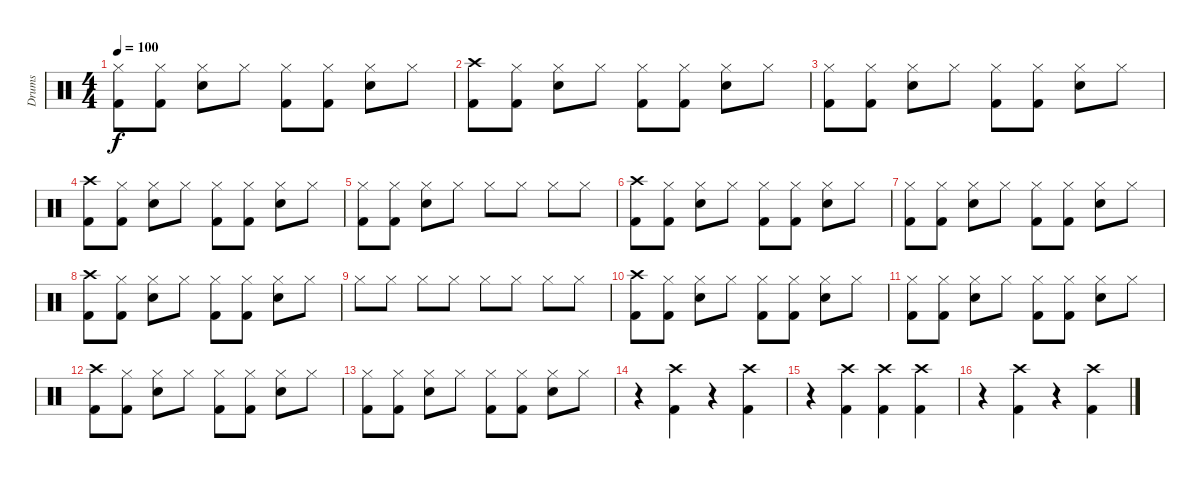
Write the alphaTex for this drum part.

\track ("Drums" "Drums") {instrument percussion}
\staff {score}
\articulation defaults
\ts (4 4)
\tempo 100
\clef neutral
\ks c
("Hi-Hat (closed)" "Kick (hit) 2").8{dy f} ("Hi-Hat (closed)" "Kick (hit) 2").8 ("Hi-Hat (closed)" "Electric Snare (hit)").8 "Hi-Hat (closed)".8 ("Hi-Hat (closed)" "Kick (hit) 2").8 ("Hi-Hat (closed)" "Kick (hit) 2").8 ("Hi-Hat (closed)" "Electric Snare (hit)").8 "Hi-Hat (closed)".8 |
("Crash high (hit)" "Kick (hit) 2").8 ("Hi-Hat (closed)" "Kick (hit) 2").8 ("Hi-Hat (closed)" "Electric Snare (hit)").8 "Hi-Hat (closed)".8 ("Hi-Hat (closed)" "Kick (hit) 2").8 ("Hi-Hat (closed)" "Kick (hit) 2").8 ("Hi-Hat (closed)" "Electric Snare (hit)").8 "Hi-Hat (closed)".8 |
("Hi-Hat (closed)" "Kick (hit) 2").8 ("Hi-Hat (closed)" "Kick (hit) 2").8 ("Hi-Hat (closed)" "Electric Snare (hit)").8 "Hi-Hat (closed)".8 ("Hi-Hat (closed)" "Kick (hit) 2").8 ("Hi-Hat (closed)" "Kick (hit) 2").8 ("Hi-Hat (closed)" "Electric Snare (hit)").8 "Hi-Hat (closed)".8 |
("Crash high (hit)" "Kick (hit) 2").8 ("Hi-Hat (closed)" "Kick (hit) 2").8 ("Hi-Hat (closed)" "Electric Snare (hit)").8 "Hi-Hat (closed)".8 ("Hi-Hat (closed)" "Kick (hit) 2").8 ("Hi-Hat (closed)" "Kick (hit) 2").8 ("Hi-Hat (closed)" "Electric Snare (hit)").8 "Hi-Hat (closed)".8 |
("Hi-Hat (closed)" "Kick (hit) 2").8 ("Hi-Hat (closed)" "Kick (hit) 2").8 ("Hi-Hat (closed)" "Electric Snare (hit)").8 "Hi-Hat (closed)".8 "Hi-Hat (closed)".8 "Hi-Hat (closed)".8 "Hi-Hat (closed)".8 "Hi-Hat (closed)".8 |
("Crash high (hit)" "Kick (hit) 2").8 ("Hi-Hat (closed)" "Kick (hit) 2").8 ("Hi-Hat (closed)" "Electric Snare (hit)").8 "Hi-Hat (closed)".8 ("Hi-Hat (closed)" "Kick (hit) 2").8 ("Hi-Hat (closed)" "Kick (hit) 2").8 ("Hi-Hat (closed)" "Electric Snare (hit)").8 "Hi-Hat (closed)".8 |
("Hi-Hat (closed)" "Kick (hit) 2").8 ("Hi-Hat (closed)" "Kick (hit) 2").8 ("Hi-Hat (closed)" "Electric Snare (hit)").8 "Hi-Hat (closed)".8 ("Hi-Hat (closed)" "Kick (hit) 2").8 ("Hi-Hat (closed)" "Kick (hit) 2").8 ("Hi-Hat (closed)" "Electric Snare (hit)").8 "Hi-Hat (closed)".8 |
("Crash high (hit)" "Kick (hit) 2").8 ("Hi-Hat (closed)" "Kick (hit) 2").8 ("Hi-Hat (closed)" "Electric Snare (hit)").8 "Hi-Hat (closed)".8 ("Hi-Hat (closed)" "Kick (hit) 2").8 ("Hi-Hat (closed)" "Kick (hit) 2").8 ("Hi-Hat (closed)" "Electric Snare (hit)").8 "Hi-Hat (closed)".8 |
"Hi-Hat (closed)".8 "Hi-Hat (closed)".8 "Hi-Hat (closed)".8 "Hi-Hat (closed)".8 "Hi-Hat (closed)".8 "Hi-Hat (closed)".8 "Hi-Hat (closed)".8 "Hi-Hat (closed)".8 |
("Crash high (hit)" "Kick (hit) 2").8 ("Hi-Hat (closed)" "Kick (hit) 2").8 ("Hi-Hat (closed)" "Electric Snare (hit)").8 "Hi-Hat (closed)".8 ("Hi-Hat (closed)" "Kick (hit) 2").8 ("Hi-Hat (closed)" "Kick (hit) 2").8 ("Hi-Hat (closed)" "Electric Snare (hit)").8 "Hi-Hat (closed)".8 |
("Hi-Hat (closed)" "Kick (hit) 2").8 ("Hi-Hat (closed)" "Kick (hit) 2").8 ("Hi-Hat (closed)" "Electric Snare (hit)").8 "Hi-Hat (closed)".8 ("Hi-Hat (closed)" "Kick (hit) 2").8 ("Hi-Hat (closed)" "Kick (hit) 2").8 ("Hi-Hat (closed)" "Electric Snare (hit)").8 "Hi-Hat (closed)".8 |
("Crash high (hit)" "Kick (hit) 2").8 ("Hi-Hat (closed)" "Kick (hit) 2").8 ("Hi-Hat (closed)" "Electric Snare (hit)").8 "Hi-Hat (closed)".8 ("Hi-Hat (closed)" "Kick (hit) 2").8 ("Hi-Hat (closed)" "Kick (hit) 2").8 ("Hi-Hat (closed)" "Electric Snare (hit)").8 "Hi-Hat (closed)".8 |
("Hi-Hat (closed)" "Kick (hit) 2").8 ("Hi-Hat (closed)" "Kick (hit) 2").8 ("Hi-Hat (closed)" "Electric Snare (hit)").8 "Hi-Hat (closed)".8 ("Hi-Hat (closed)" "Kick (hit) 2").8 ("Hi-Hat (closed)" "Kick (hit) 2").8 ("Hi-Hat (closed)" "Electric Snare (hit)").8 "Hi-Hat (closed)".8 |
r.4 ("Crash high (hit)" "Kick (hit) 2").4 r.4 ("Crash high (hit)" "Kick (hit) 2").4 |
r.4 ("Crash high (hit)" "Kick (hit) 2").4 ("Crash high (hit)" "Kick (hit) 2").4 ("Crash high (hit)" "Kick (hit) 2").4 |
r.4 ("Crash high (hit)" "Kick (hit) 2").4 r.4 ("Crash high (hit)" "Kick (hit) 2").4
